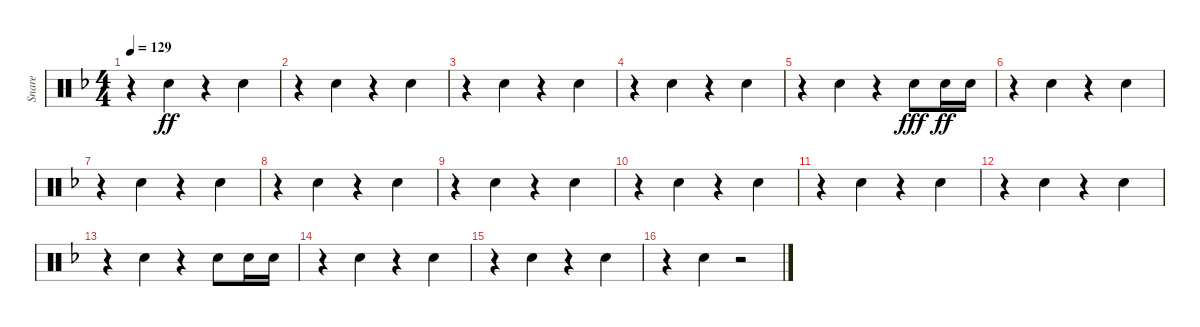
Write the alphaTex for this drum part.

\track ("Snare" "Snare") {instrument percussion}
\staff {score}
\articulation defaults
\ts (4 4)
\tempo 129
\clef neutral
\ks dminor
r.4{dy ff} "Electric Snare (hit)".4 r.4 "Electric Snare (hit)".4 |
r.4 "Electric Snare (hit)".4 r.4 "Electric Snare (hit)".4 |
r.4 "Electric Snare (hit)".4 r.4 "Electric Snare (hit)".4 |
r.4 "Electric Snare (hit)".4 r.4 "Electric Snare (hit)".4 |
r.4 "Electric Snare (hit)".4 r.4 "Electric Snare (hit)".8{dy fff} "Electric Snare (hit)".16{dy ff} "Electric Snare (hit)".16 |
r.4 "Electric Snare (hit)".4 r.4 "Electric Snare (hit)".4 |
r.4 "Electric Snare (hit)".4 r.4 "Electric Snare (hit)".4 |
r.4 "Electric Snare (hit)".4 r.4 "Electric Snare (hit)".4 |
r.4 "Electric Snare (hit)".4 r.4 "Electric Snare (hit)".4 |
r.4 "Electric Snare (hit)".4 r.4 "Electric Snare (hit)".4 |
r.4 "Electric Snare (hit)".4 r.4 "Electric Snare (hit)".4 |
r.4 "Electric Snare (hit)".4 r.4 "Electric Snare (hit)".4 |
r.4 "Electric Snare (hit)".4 r.4 "Electric Snare (hit)".8 "Electric Snare (hit)".16 "Electric Snare (hit)".16 |
r.4 "Electric Snare (hit)".4 r.4 "Electric Snare (hit)".4 |
r.4 "Electric Snare (hit)".4 r.4 "Electric Snare (hit)".4 |
r.4 "Electric Snare (hit)".4 r.2
